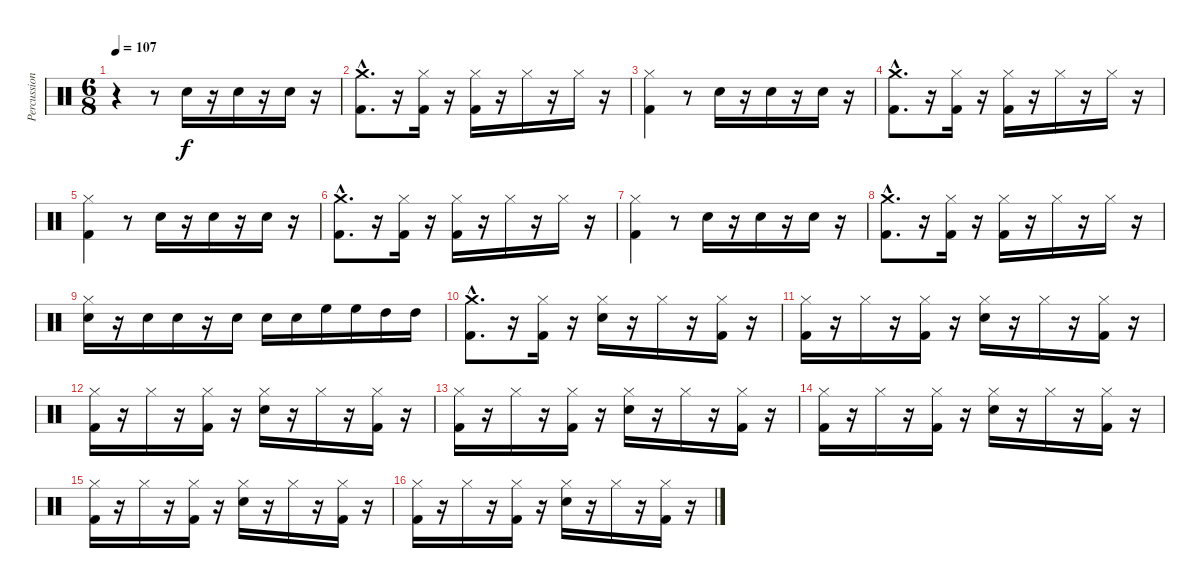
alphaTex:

\track ("Percussions" "Percussion") {instrument percussion}
\staff {score}
\articulation defaults
\ts (6 8)
\tempo 107
\clef neutral
\ks c
r.4{dy f} r.8 "Snare (hit) 2".16 r.16 "Snare (hit) 2".16 r.16 "Snare (hit) 2".16 r.16 |
("Kick (hit) 2"{hac} "Crash medium (hit)"{hac}).8{d} r.16 ("Kick (hit) 2" "Hi-Hat (closed)").16 r.16 ("Kick (hit) 2" "Hi-Hat (closed)").16 r.16 "Hi-Hat (closed)".16 r.16 "Hi-Hat (closed)".16 r.16 |
("Kick (hit) 2" "Hi-Hat (closed)").4 r.8 "Snare (hit) 2".16 r.16 "Snare (hit) 2".16 r.16 "Snare (hit) 2".16 r.16 |
("Kick (hit) 2"{hac} "Crash medium (hit)"{hac}).8{d} r.16 ("Kick (hit) 2" "Hi-Hat (closed)").16 r.16 ("Kick (hit) 2" "Hi-Hat (closed)").16 r.16 "Hi-Hat (closed)".16 r.16 "Hi-Hat (closed)".16 r.16 |
("Kick (hit) 2" "Hi-Hat (closed)").4 r.8 "Snare (hit) 2".16 r.16 "Snare (hit) 2".16 r.16 "Snare (hit) 2".16 r.16 |
("Kick (hit) 2"{hac} "Crash medium (hit)"{hac}).8{d} r.16 ("Kick (hit) 2" "Hi-Hat (closed)").16 r.16 ("Kick (hit) 2" "Hi-Hat (closed)").16 r.16 "Hi-Hat (closed)".16 r.16 "Hi-Hat (closed)".16 r.16 |
("Kick (hit) 2" "Hi-Hat (closed)").4 r.8 "Snare (hit) 2".16 r.16 "Snare (hit) 2".16 r.16 "Snare (hit) 2".16 r.16 |
("Kick (hit) 2"{hac} "Crash medium (hit)"{hac}).8{d} r.16 ("Kick (hit) 2" "Hi-Hat (closed)").16 r.16 ("Kick (hit) 2" "Hi-Hat (closed)").16 r.16 "Hi-Hat (closed)".16 r.16 "Hi-Hat (closed)".16 r.16 |
("Snare (hit) 2" "Hi-Hat (closed)").16 r.16 "Snare (hit) 2".16 "Snare (hit) 2".16 r.16 "Snare (hit) 2".16 "Snare (hit) 2".16 "Snare (hit) 2".16 "High Floor Tom (hit)".16 "High Floor Tom (hit)".16 "High Tom (hit)".16 "High Tom (hit)".16 |
("Kick (hit) 2"{hac} "Crash medium (hit)"{hac}).8{d} r.16 ("Kick (hit) 2" "Hi-Hat (closed)").16 r.16 ("Snare (hit) 2" "Hi-Hat (closed)").16 r.16 "Hi-Hat (closed)".16 r.16 ("Kick (hit) 2" "Hi-Hat (closed)").16 r.16 |
("Kick (hit) 2" "Hi-Hat (closed)").16 r.16 "Hi-Hat (closed)".16 r.16 ("Kick (hit) 2" "Hi-Hat (closed)").16 r.16 ("Snare (hit) 2" "Hi-Hat (closed)").16 r.16 "Hi-Hat (closed)".16 r.16 ("Kick (hit) 2" "Hi-Hat (closed)").16 r.16 |
("Kick (hit) 2" "Hi-Hat (closed)").16 r.16 "Hi-Hat (closed)".16 r.16 ("Kick (hit) 2" "Hi-Hat (closed)").16 r.16 ("Snare (hit) 2" "Hi-Hat (closed)").16 r.16 "Hi-Hat (closed)".16 r.16 ("Kick (hit) 2" "Hi-Hat (closed)").16 r.16 |
("Kick (hit) 2" "Hi-Hat (closed)").16 r.16 "Hi-Hat (closed)".16 r.16 ("Kick (hit) 2" "Hi-Hat (closed)").16 r.16 ("Snare (hit) 2" "Hi-Hat (closed)").16 r.16 "Hi-Hat (closed)".16 r.16 ("Kick (hit) 2" "Hi-Hat (closed)").16 r.16 |
("Kick (hit) 2" "Hi-Hat (closed)").16 r.16 "Hi-Hat (closed)".16 r.16 ("Kick (hit) 2" "Hi-Hat (closed)").16 r.16 ("Snare (hit) 2" "Hi-Hat (closed)").16 r.16 "Hi-Hat (closed)".16 r.16 ("Kick (hit) 2" "Hi-Hat (closed)").16 r.16 |
("Kick (hit) 2" "Hi-Hat (closed)").16 r.16 "Hi-Hat (closed)".16 r.16 ("Kick (hit) 2" "Hi-Hat (closed)").16 r.16 ("Snare (hit) 2" "Hi-Hat (closed)").16 r.16 "Hi-Hat (closed)".16 r.16 ("Kick (hit) 2" "Hi-Hat (closed)").16 r.16 |
("Kick (hit) 2" "Hi-Hat (closed)").16 r.16 "Hi-Hat (closed)".16 r.16 ("Kick (hit) 2" "Hi-Hat (closed)").16 r.16 ("Snare (hit) 2" "Hi-Hat (closed)").16 r.16 "Hi-Hat (closed)".16 r.16 ("Kick (hit) 2" "Hi-Hat (closed)").16 r.16
